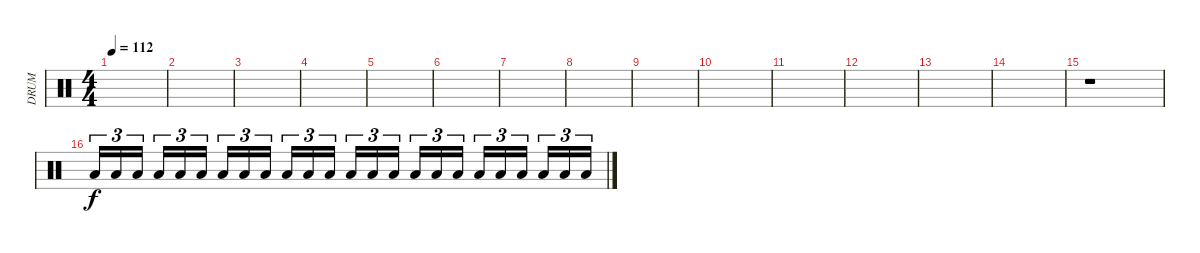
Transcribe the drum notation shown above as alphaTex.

\track ("DRUM" "DRUM") {instrument percussion}
\staff {score}
\articulation defaults
\ts (4 4)
\tempo 112
\clef neutral
\ks c
|
|
|
|
|
|
|
|
|
|
|
|
|
|
r.1{volume 3} |
"Low Floor Tom (hit)".16{tu (3 2) volume 13} "Low Floor Tom (hit)".16{tu (3 2)} "Low Floor Tom (hit)".16{tu (3 2)} "Low Floor Tom (hit)".16{tu (3 2)} "Low Floor Tom (hit)".16{tu (3 2)} "Low Floor Tom (hit)".16{tu (3 2)} "Low Floor Tom (hit)".16{tu (3 2)} "Low Floor Tom (hit)".16{tu (3 2)} "Low Floor Tom (hit)".16{tu (3 2)} "Low Floor Tom (hit)".16{tu (3 2)} "Low Floor Tom (hit)".16{tu (3 2)} "Low Floor Tom (hit)".16{tu (3 2)} "Low Floor Tom (hit)".16{tu (3 2) volume 6} "Low Floor Tom (hit)".16{tu (3 2)} "Low Floor Tom (hit)".16{tu (3 2)} "Low Floor Tom (hit)".16{tu (3 2)} "Low Floor Tom (hit)".16{tu (3 2)} "Low Floor Tom (hit)".16{tu (3 2)} "Low Floor Tom (hit)".16{tu (3 2)} "Low Floor Tom (hit)".16{tu (3 2)} "Low Floor Tom (hit)".16{tu (3 2)} "Low Floor Tom (hit)".16{tu (3 2)} "Low Floor Tom (hit)".16{tu (3 2)} "Low Floor Tom (hit)".16{tu (3 2)}
